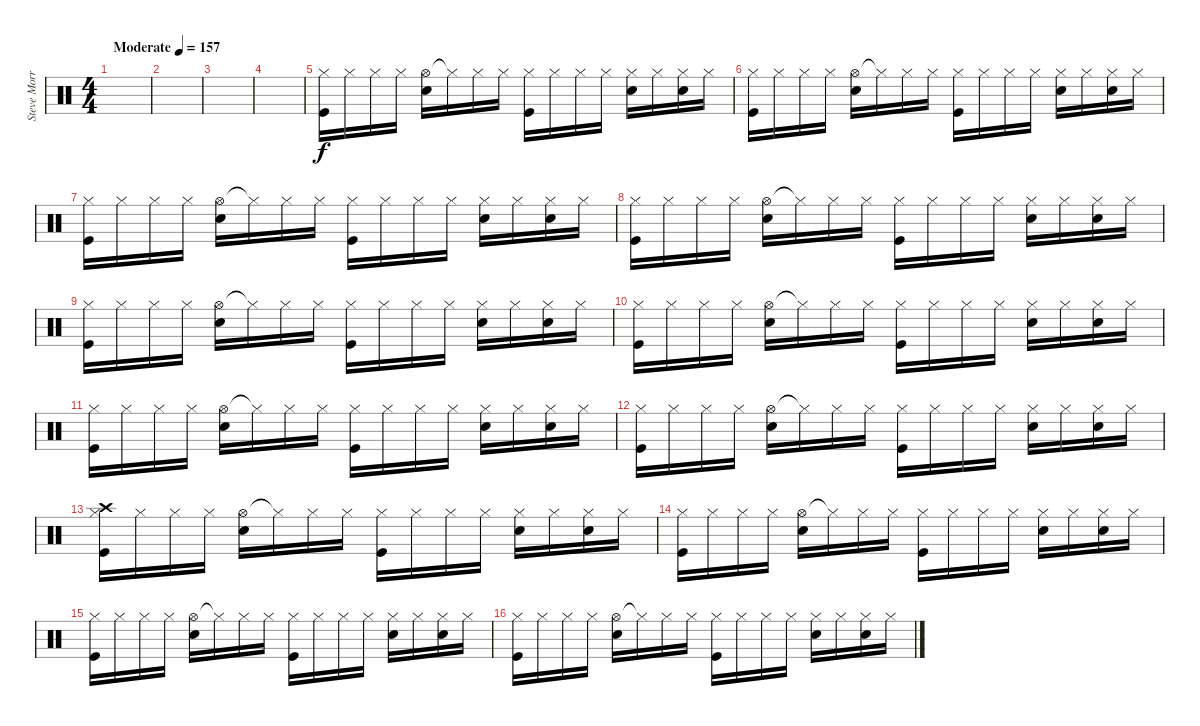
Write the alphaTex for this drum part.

\track ("Steve Morris" "Steve Morr") {instrument percussion}
\staff {score}
\articulation defaults
\ts (4 4)
\tempo (157 "Moderate")
\clef neutral
\ks c
|
|
|
|
("Hi-Hat (closed)" "Kick (hit)").16 "Hi-Hat (closed)".16 "Hi-Hat (closed)".16 "Hi-Hat (closed)".16 ("Hi-Hat (open)" "Electric Snare (hit)").16 "Hi-Hat (closed)"{t}.16 "Hi-Hat (closed)".16 "Hi-Hat (closed)".16 ("Hi-Hat (closed)" "Kick (hit)").16 "Hi-Hat (closed)".16 "Hi-Hat (closed)".16 "Hi-Hat (closed)".16 ("Hi-Hat (closed)" "Electric Snare (hit)").16 "Hi-Hat (closed)".16 ("Hi-Hat (closed)" "Electric Snare (hit)").16 "Hi-Hat (closed)".16 |
("Hi-Hat (closed)" "Kick (hit)").16 "Hi-Hat (closed)".16 "Hi-Hat (closed)".16 "Hi-Hat (closed)".16 ("Hi-Hat (open)" "Electric Snare (hit)").16 "Hi-Hat (closed)"{t}.16 "Hi-Hat (closed)".16 "Hi-Hat (closed)".16 ("Hi-Hat (closed)" "Kick (hit)").16 "Hi-Hat (closed)".16 "Hi-Hat (closed)".16 "Hi-Hat (closed)".16 ("Hi-Hat (closed)" "Electric Snare (hit)").16 "Hi-Hat (closed)".16 ("Hi-Hat (closed)" "Electric Snare (hit)").16 "Hi-Hat (closed)".16 |
("Hi-Hat (closed)" "Kick (hit)").16 "Hi-Hat (closed)".16 "Hi-Hat (closed)".16 "Hi-Hat (closed)".16 ("Hi-Hat (open)" "Electric Snare (hit)").16 "Hi-Hat (closed)"{t}.16 "Hi-Hat (closed)".16 "Hi-Hat (closed)".16 ("Hi-Hat (closed)" "Kick (hit)").16 "Hi-Hat (closed)".16 "Hi-Hat (closed)".16 "Hi-Hat (closed)".16 ("Hi-Hat (closed)" "Electric Snare (hit)").16 "Hi-Hat (closed)".16 ("Hi-Hat (closed)" "Electric Snare (hit)").16 "Hi-Hat (closed)".16 |
("Hi-Hat (closed)" "Kick (hit)").16 "Hi-Hat (closed)".16 "Hi-Hat (closed)".16 "Hi-Hat (closed)".16 ("Hi-Hat (open)" "Electric Snare (hit)").16 "Hi-Hat (closed)"{t}.16 "Hi-Hat (closed)".16 "Hi-Hat (closed)".16 ("Hi-Hat (closed)" "Kick (hit)").16 "Hi-Hat (closed)".16 "Hi-Hat (closed)".16 "Hi-Hat (closed)".16 ("Hi-Hat (closed)" "Electric Snare (hit)").16 "Hi-Hat (closed)".16 ("Hi-Hat (closed)" "Electric Snare (hit)").16 "Hi-Hat (closed)".16 |
("Hi-Hat (closed)" "Kick (hit)").16 "Hi-Hat (closed)".16 "Hi-Hat (closed)".16 "Hi-Hat (closed)".16 ("Hi-Hat (open)" "Electric Snare (hit)").16 "Hi-Hat (closed)"{t}.16 "Hi-Hat (closed)".16 "Hi-Hat (closed)".16 ("Hi-Hat (closed)" "Kick (hit)").16 "Hi-Hat (closed)".16 "Hi-Hat (closed)".16 "Hi-Hat (closed)".16 ("Hi-Hat (closed)" "Electric Snare (hit)").16 "Hi-Hat (closed)".16 ("Hi-Hat (closed)" "Electric Snare (hit)").16 "Hi-Hat (closed)".16 |
("Hi-Hat (closed)" "Kick (hit)").16 "Hi-Hat (closed)".16 "Hi-Hat (closed)".16 "Hi-Hat (closed)".16 ("Hi-Hat (open)" "Electric Snare (hit)").16 "Hi-Hat (closed)"{t}.16 "Hi-Hat (closed)".16 "Hi-Hat (closed)".16 ("Hi-Hat (closed)" "Kick (hit)").16 "Hi-Hat (closed)".16 "Hi-Hat (closed)".16 "Hi-Hat (closed)".16 ("Hi-Hat (closed)" "Electric Snare (hit)").16 "Hi-Hat (closed)".16 ("Hi-Hat (closed)" "Electric Snare (hit)").16 "Hi-Hat (closed)".16 |
("Hi-Hat (closed)" "Kick (hit)").16 "Hi-Hat (closed)".16 "Hi-Hat (closed)".16 "Hi-Hat (closed)".16 ("Hi-Hat (open)" "Electric Snare (hit)").16 "Hi-Hat (closed)"{t}.16 "Hi-Hat (closed)".16 "Hi-Hat (closed)".16 ("Hi-Hat (closed)" "Kick (hit)").16 "Hi-Hat (closed)".16 "Hi-Hat (closed)".16 "Hi-Hat (closed)".16 ("Hi-Hat (closed)" "Electric Snare (hit)").16 "Hi-Hat (closed)".16 ("Hi-Hat (closed)" "Electric Snare (hit)").16 "Hi-Hat (closed)".16 |
("Hi-Hat (closed)" "Kick (hit)").16 "Hi-Hat (closed)".16 "Hi-Hat (closed)".16 "Hi-Hat (closed)".16 ("Hi-Hat (open)" "Electric Snare (hit)").16 "Hi-Hat (closed)"{t}.16 "Hi-Hat (closed)".16 "Hi-Hat (closed)".16 ("Hi-Hat (closed)" "Kick (hit)").16 "Hi-Hat (closed)".16 "Hi-Hat (closed)".16 "Hi-Hat (closed)".16 ("Hi-Hat (closed)" "Electric Snare (hit)").16 "Hi-Hat (closed)".16 ("Hi-Hat (closed)" "Electric Snare (hit)").16 "Hi-Hat (closed)".16 |
("Hi-Hat (closed)" "Kick (hit)" "Crash high (hit)").16 "Hi-Hat (closed)".16 "Hi-Hat (closed)".16 "Hi-Hat (closed)".16 ("Hi-Hat (open)" "Electric Snare (hit)").16 "Hi-Hat (closed)"{t}.16 "Hi-Hat (closed)".16 "Hi-Hat (closed)".16 ("Hi-Hat (closed)" "Kick (hit)").16 "Hi-Hat (closed)".16 "Hi-Hat (closed)".16 "Hi-Hat (closed)".16 ("Hi-Hat (closed)" "Electric Snare (hit)").16 "Hi-Hat (closed)".16 ("Hi-Hat (closed)" "Electric Snare (hit)").16 "Hi-Hat (closed)".16 |
("Hi-Hat (closed)" "Kick (hit)").16 "Hi-Hat (closed)".16 "Hi-Hat (closed)".16 "Hi-Hat (closed)".16 ("Hi-Hat (open)" "Electric Snare (hit)").16 "Hi-Hat (closed)"{t}.16 "Hi-Hat (closed)".16 "Hi-Hat (closed)".16 ("Hi-Hat (closed)" "Kick (hit)").16 "Hi-Hat (closed)".16 "Hi-Hat (closed)".16 "Hi-Hat (closed)".16 ("Hi-Hat (closed)" "Electric Snare (hit)").16 "Hi-Hat (closed)".16 ("Hi-Hat (closed)" "Electric Snare (hit)").16 "Hi-Hat (closed)".16 |
("Hi-Hat (closed)" "Kick (hit)").16 "Hi-Hat (closed)".16 "Hi-Hat (closed)".16 "Hi-Hat (closed)".16 ("Hi-Hat (open)" "Electric Snare (hit)").16 "Hi-Hat (closed)"{t}.16 "Hi-Hat (closed)".16 "Hi-Hat (closed)".16 ("Hi-Hat (closed)" "Kick (hit)").16 "Hi-Hat (closed)".16 "Hi-Hat (closed)".16 "Hi-Hat (closed)".16 ("Hi-Hat (closed)" "Electric Snare (hit)").16 "Hi-Hat (closed)".16 ("Hi-Hat (closed)" "Electric Snare (hit)").16 "Hi-Hat (closed)".16 |
("Hi-Hat (closed)" "Kick (hit)").16 "Hi-Hat (closed)".16 "Hi-Hat (closed)".16 "Hi-Hat (closed)".16 ("Hi-Hat (open)" "Electric Snare (hit)").16 "Hi-Hat (closed)"{t}.16 "Hi-Hat (closed)".16 "Hi-Hat (closed)".16 ("Hi-Hat (closed)" "Kick (hit)").16 "Hi-Hat (closed)".16 "Hi-Hat (closed)".16 "Hi-Hat (closed)".16 ("Hi-Hat (closed)" "Electric Snare (hit)").16 "Hi-Hat (closed)".16 ("Hi-Hat (closed)" "Electric Snare (hit)").16 "Hi-Hat (closed)".16
